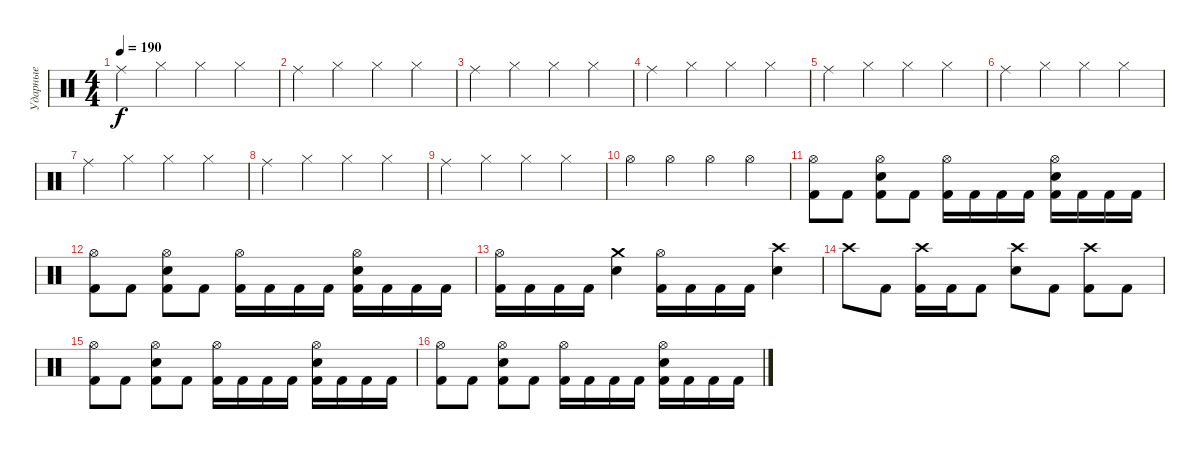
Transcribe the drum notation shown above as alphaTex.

\track ("Ударные" "Ударные") {instrument percussion}
\staff {score}
\articulation defaults
\ts (4 4)
\tempo 190
\clef neutral
\ks c "Ride (middle)".4{dy f} "Hi-Hat (closed)".4 "Hi-Hat (closed)".4 "Hi-Hat (closed)".4
|
"Ride (middle)".4 "Hi-Hat (closed)".4 "Hi-Hat (closed)".4 "Hi-Hat (closed)".4 |
"Ride (middle)".4 "Hi-Hat (closed)".4 "Hi-Hat (closed)".4 "Hi-Hat (closed)".4 |
"Ride (middle)".4 "Hi-Hat (closed)".4 "Hi-Hat (closed)".4 "Hi-Hat (closed)".4 |
"Ride (middle)".4 "Hi-Hat (closed)".4 "Hi-Hat (closed)".4 "Hi-Hat (closed)".4 |
"Ride (middle)".4 "Hi-Hat (closed)".4 "Hi-Hat (closed)".4 "Hi-Hat (closed)".4 |
"Ride (middle)".4 "Hi-Hat (closed)".4 "Hi-Hat (closed)".4 "Hi-Hat (closed)".4 |
"Ride (middle)".4 "Hi-Hat (closed)".4 "Hi-Hat (closed)".4 "Hi-Hat (closed)".4 |
"Ride (middle)".4 "Hi-Hat (closed)".4 "Hi-Hat (closed)".4 "Hi-Hat (closed)".4 |
"Hi-Hat (open)".4 "Hi-Hat (open)".4 "Hi-Hat (open)".4 "Hi-Hat (open)".4 |
("Hi-Hat (open)" "Kick (hit) 2").8 "Kick (hit) 2".8 ("Hi-Hat (open)" "Electric Snare (hit)" "Kick (hit) 2").8 "Kick (hit) 2".8 ("Hi-Hat (open)" "Kick (hit) 2").16 "Kick (hit) 2".16 "Kick (hit) 2".16 "Kick (hit) 2".16 ("Hi-Hat (open)" "Electric Snare (hit)" "Kick (hit) 2").16 "Kick (hit) 2".16 "Kick (hit) 2".16 "Kick (hit) 2".16 |
("Hi-Hat (open)" "Kick (hit) 2").8 "Kick (hit) 2".8 ("Hi-Hat (open)" "Electric Snare (hit)" "Kick (hit) 2").8 "Kick (hit) 2".8 ("Hi-Hat (open)" "Kick (hit) 2").16 "Kick (hit) 2".16 "Kick (hit) 2".16 "Kick (hit) 2".16 ("Hi-Hat (open)" "Electric Snare (hit)" "Kick (hit) 2").16 "Kick (hit) 2".16 "Kick (hit) 2".16 "Kick (hit) 2".16 |
("Hi-Hat (open)" "Kick (hit) 2").16 "Kick (hit) 2".16 "Kick (hit) 2".16 "Kick (hit) 2".16 ("Crash medium (hit)" "Electric Snare (hit)").4 ("Hi-Hat (open)" "Kick (hit) 2").16 "Kick (hit) 2".16 "Kick (hit) 2".16 "Kick (hit) 2".16 ("Crash high (hit)" "Electric Snare (hit)").4 |
"Crash high (hit)".8 "Kick (hit) 2".8 ("Crash high (hit)" "Kick (hit) 2").16 "Kick (hit) 2".16 "Kick (hit) 2".8 ("Crash high (hit)" "Electric Snare (hit)").8 "Kick (hit) 2".8 ("Crash high (hit)" "Kick (hit) 2").8 "Kick (hit) 2".8 |
("Hi-Hat (open)" "Kick (hit) 2").8 "Kick (hit) 2".8 ("Hi-Hat (open)" "Electric Snare (hit)" "Kick (hit) 2").8 "Kick (hit) 2".8 ("Hi-Hat (open)" "Kick (hit) 2").16 "Kick (hit) 2".16 "Kick (hit) 2".16 "Kick (hit) 2".16 ("Hi-Hat (open)" "Electric Snare (hit)" "Kick (hit) 2").16 "Kick (hit) 2".16 "Kick (hit) 2".16 "Kick (hit) 2".16 |
("Hi-Hat (open)" "Kick (hit) 2").8 "Kick (hit) 2".8 ("Hi-Hat (open)" "Electric Snare (hit)" "Kick (hit) 2").8 "Kick (hit) 2".8 ("Hi-Hat (open)" "Kick (hit) 2").16 "Kick (hit) 2".16 "Kick (hit) 2".16 "Kick (hit) 2".16 ("Hi-Hat (open)" "Electric Snare (hit)" "Kick (hit) 2").16 "Kick (hit) 2".16 "Kick (hit) 2".16 "Kick (hit) 2".16
